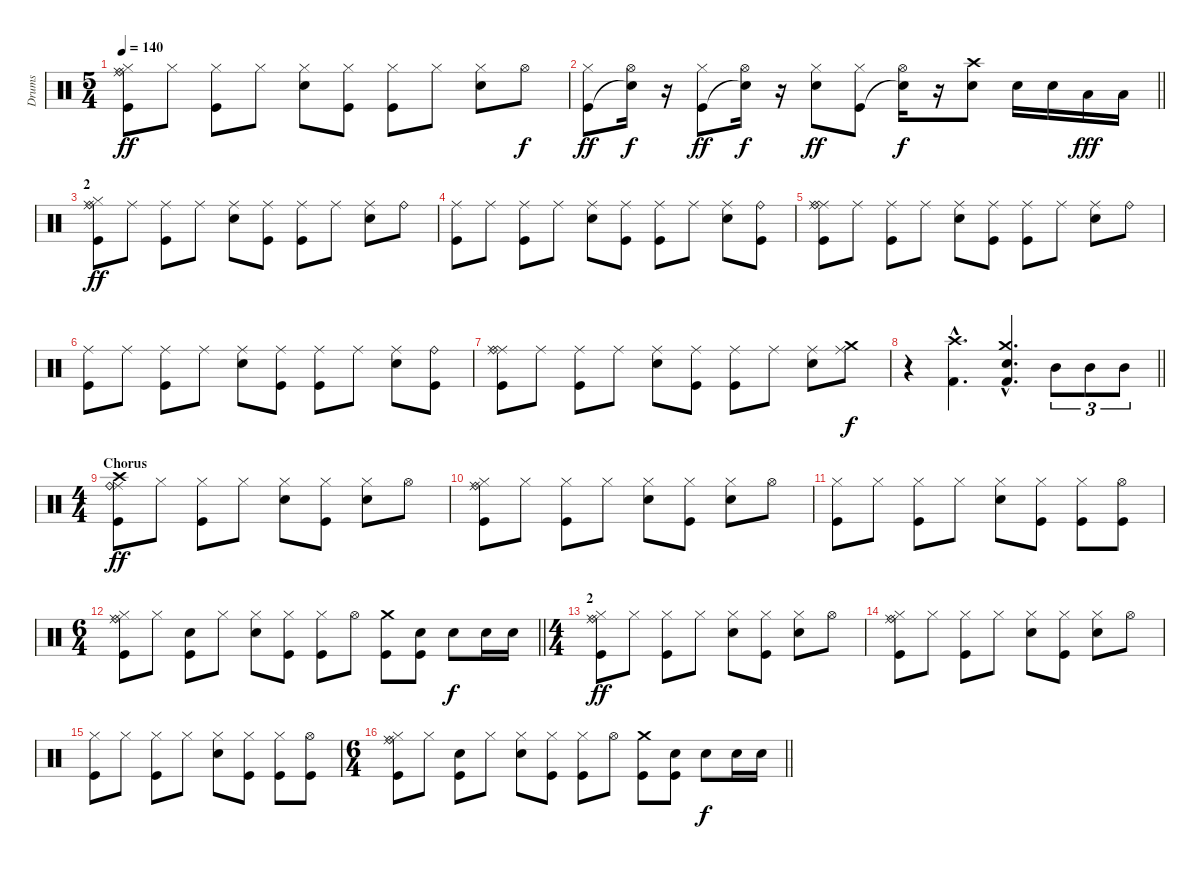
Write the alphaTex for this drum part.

\track ("Drums" "Drums") {instrument percussion}
\staff {score}
\articulation defaults
\ts (5 4)
\tempo 140
\clef neutral
\ks c
("Kick (hit)" "Hi-Hat (closed)" "Ride (middle)" "Ride (bell)").8{dy ff} "Hi-Hat (closed)".8 ("Kick (hit)" "Hi-Hat (closed)").8 "Hi-Hat (closed)".8 ("Snare (hit) 2" "Hi-Hat (closed)").8 ("Kick (hit)" "Hi-Hat (closed)").8 ("Kick (hit)" "Hi-Hat (closed)").8 "Hi-Hat (closed)".8 ("Snare (hit) 2" "Hi-Hat (closed)").8 "Hi-Hat (open)".8{dy f} |
\barLineRight lightlight
("Kick (hit)" "Hi-Hat (closed)").8{dy ff} ("Snare (hit)"{t} "Hi-Hat (open)").16{dy f} r.16 ("Kick (hit)" "Hi-Hat (closed)").8{dy ff} ("Snare (hit)"{t} "Hi-Hat (open)").16{dy f} r.16 ("Snare (hit) 2" "Hi-Hat (closed)").8{dy ff} ("Kick (hit)" "Hi-Hat (closed)").8 ("Snare (hit)"{t} "Hi-Hat (open)").16{dy f} r.16 ("Snare (hit) 2" "Crash high (hit)").8 "Snare (hit) 2".16 "Snare (hit) 2".16 "Low Floor Tom (hit)".16{dy fff} "Low Floor Tom (hit)".16 |
\section ("" "2")
("Kick (hit)" "Hi-Hat (closed)" "Ride (middle)" "Ride (bell)").8{dy ff} "Ride (middle)".8 ("Kick (hit)" "Ride (middle)").8 "Ride (middle)".8 ("Snare (hit) 2" "Ride (middle)").8 ("Kick (hit)" "Ride (middle)").8 ("Kick (hit)" "Ride (middle)").8 "Ride (middle)".8 ("Snare (hit) 2" "Ride (middle)").8 "Ride (bell)".8 |
("Kick (hit)" "Ride (middle)").8 "Ride (middle)".8 ("Kick (hit)" "Ride (middle)").8 "Ride (middle)".8 ("Snare (hit) 2" "Ride (middle)").8 ("Kick (hit)" "Ride (middle)").8 ("Kick (hit)" "Ride (middle)").8 "Ride (middle)".8 ("Snare (hit) 2" "Ride (middle)").8 ("Kick (hit)" "Ride (bell)").8 |
("Kick (hit)" "Ride (middle)" "Ride (middle)" "Ride (bell)").8 "Ride (middle)".8 ("Kick (hit)" "Ride (middle)").8 "Ride (middle)".8 ("Snare (hit) 2" "Ride (middle)").8 ("Kick (hit)" "Ride (middle)").8 ("Kick (hit)" "Ride (middle)").8 "Ride (middle)".8 ("Snare (hit) 2" "Ride (middle)").8 "Ride (bell)".8 |
("Kick (hit)" "Ride (middle)").8 "Ride (middle)".8 ("Kick (hit)" "Ride (middle)").8 "Ride (middle)".8 ("Snare (hit) 2" "Ride (middle)").8 ("Kick (hit)" "Ride (middle)").8 ("Kick (hit)" "Ride (middle)").8 "Ride (middle)".8 ("Snare (hit) 2" "Ride (middle)").8 ("Kick (hit)" "Ride (bell)").8 |
("Kick (hit)" "Ride (middle)" "Ride (middle)" "Ride (bell)").8 "Ride (middle)".8 ("Kick (hit)" "Ride (middle)").8 "Ride (middle)".8 ("Snare (hit) 2" "Ride (middle)").8 ("Kick (hit)" "Ride (middle)").8 ("Kick (hit)" "Ride (middle)").8 "Ride (middle)".8 ("Snare (hit) 2" "Ride (middle)").8 ("Crash medium (hit)" "Ride (middle)").8{dy f} |
\barLineRight lightlight
r.4 ("Crash high (hit)"{hac} "Kick (hit) 2"{hac}).4{d} ("Crash medium (hit)"{hac} "Snare (hit) 2"{hac} "Kick (hit) 2"{hac}).4{d} "Mid Tom (hit)".8{tu (3 2)} "Mid Tom (hit)".8{tu (3 2)} "Mid Tom (hit)".8{tu (3 2)} |
\ts (4 4)
\section ("" "Chorus")
("Kick (hit)" "Crash high (hit)" "Ride (middle)" "Ride (bell)").8{dy ff} "Hi-Hat (closed)".8 ("Kick (hit)" "Hi-Hat (closed)").8 "Hi-Hat (closed)".8 ("Snare (hit) 2" "Hi-Hat (closed)").8 ("Kick (hit)" "Hi-Hat (closed)").8 ("Snare (hit) 2" "Hi-Hat (closed)").8 "Hi-Hat (open)".8 |
("Kick (hit)" "Hi-Hat (closed)" "Ride (middle)" "Ride (bell)").8 "Hi-Hat (closed)".8 ("Kick (hit)" "Hi-Hat (closed)").8 "Hi-Hat (closed)".8 ("Snare (hit) 2" "Hi-Hat (closed)").8 ("Kick (hit)" "Hi-Hat (closed)").8 ("Snare (hit) 2" "Hi-Hat (closed)").8 "Hi-Hat (open)".8 |
("Kick (hit)" "Hi-Hat (closed)").8 "Hi-Hat (closed)".8 ("Kick (hit)" "Hi-Hat (closed)").8 "Hi-Hat (closed)".8 ("Snare (hit) 2" "Hi-Hat (closed)").8 ("Kick (hit)" "Hi-Hat (closed)").8 ("Kick (hit)" "Hi-Hat (closed)").8 ("Kick (hit)" "Hi-Hat (open)").8 |
\ts (6 4)
\barLineRight lightlight
("Kick (hit)" "Hi-Hat (closed)" "Ride (middle)" "Ride (bell)").8 "Hi-Hat (closed)".8 ("Kick (hit)" "Snare (hit) 2").8 "Hi-Hat (closed)".8 ("Snare (hit) 2" "Hi-Hat (closed)").8 ("Kick (hit)" "Hi-Hat (closed)").8 ("Kick (hit)" "Hi-Hat (closed)").8 "Hi-Hat (open)".8 ("Kick (hit)" "Crash medium (hit)").8 ("Kick (hit)" "Snare (hit) 2").8 "Snare (hit) 2".8{dy f} "Snare (hit) 2".16 "Snare (hit) 2".16 |
\ts (4 4)
\section ("" "2")
("Kick (hit)" "Hi-Hat (closed)" "Ride (middle)" "Ride (bell)").8{dy ff} "Hi-Hat (closed)".8 ("Kick (hit)" "Hi-Hat (closed)").8 "Hi-Hat (closed)".8 ("Snare (hit) 2" "Hi-Hat (closed)").8 ("Kick (hit)" "Hi-Hat (closed)").8 ("Snare (hit) 2" "Hi-Hat (closed)").8 "Hi-Hat (open)".8 |
("Kick (hit)" "Hi-Hat (closed)" "Ride (middle)" "Ride (bell)").8 "Hi-Hat (closed)".8 ("Kick (hit)" "Hi-Hat (closed)").8 "Hi-Hat (closed)".8 ("Snare (hit) 2" "Hi-Hat (closed)").8 ("Kick (hit)" "Hi-Hat (closed)").8 ("Snare (hit) 2" "Hi-Hat (closed)").8 "Hi-Hat (open)".8 |
("Kick (hit)" "Hi-Hat (closed)").8 "Hi-Hat (closed)".8 ("Kick (hit)" "Hi-Hat (closed)").8 "Hi-Hat (closed)".8 ("Snare (hit) 2" "Hi-Hat (closed)").8 ("Kick (hit)" "Hi-Hat (closed)").8 ("Kick (hit)" "Hi-Hat (closed)").8 ("Kick (hit)" "Hi-Hat (open)").8 |
\ts (6 4)
\barLineRight lightlight
("Kick (hit)" "Hi-Hat (closed)" "Ride (middle)" "Ride (bell)").8 "Hi-Hat (closed)".8 ("Kick (hit)" "Snare (hit) 2").8 "Hi-Hat (closed)".8 ("Snare (hit) 2" "Hi-Hat (closed)").8 ("Kick (hit)" "Hi-Hat (closed)").8 ("Kick (hit)" "Hi-Hat (closed)").8 "Hi-Hat (open)".8 ("Kick (hit)" "Crash medium (hit)").8 ("Kick (hit)" "Snare (hit) 2").8 "Snare (hit) 2".8{dy f} "Snare (hit) 2".16 "Snare (hit) 2".16
